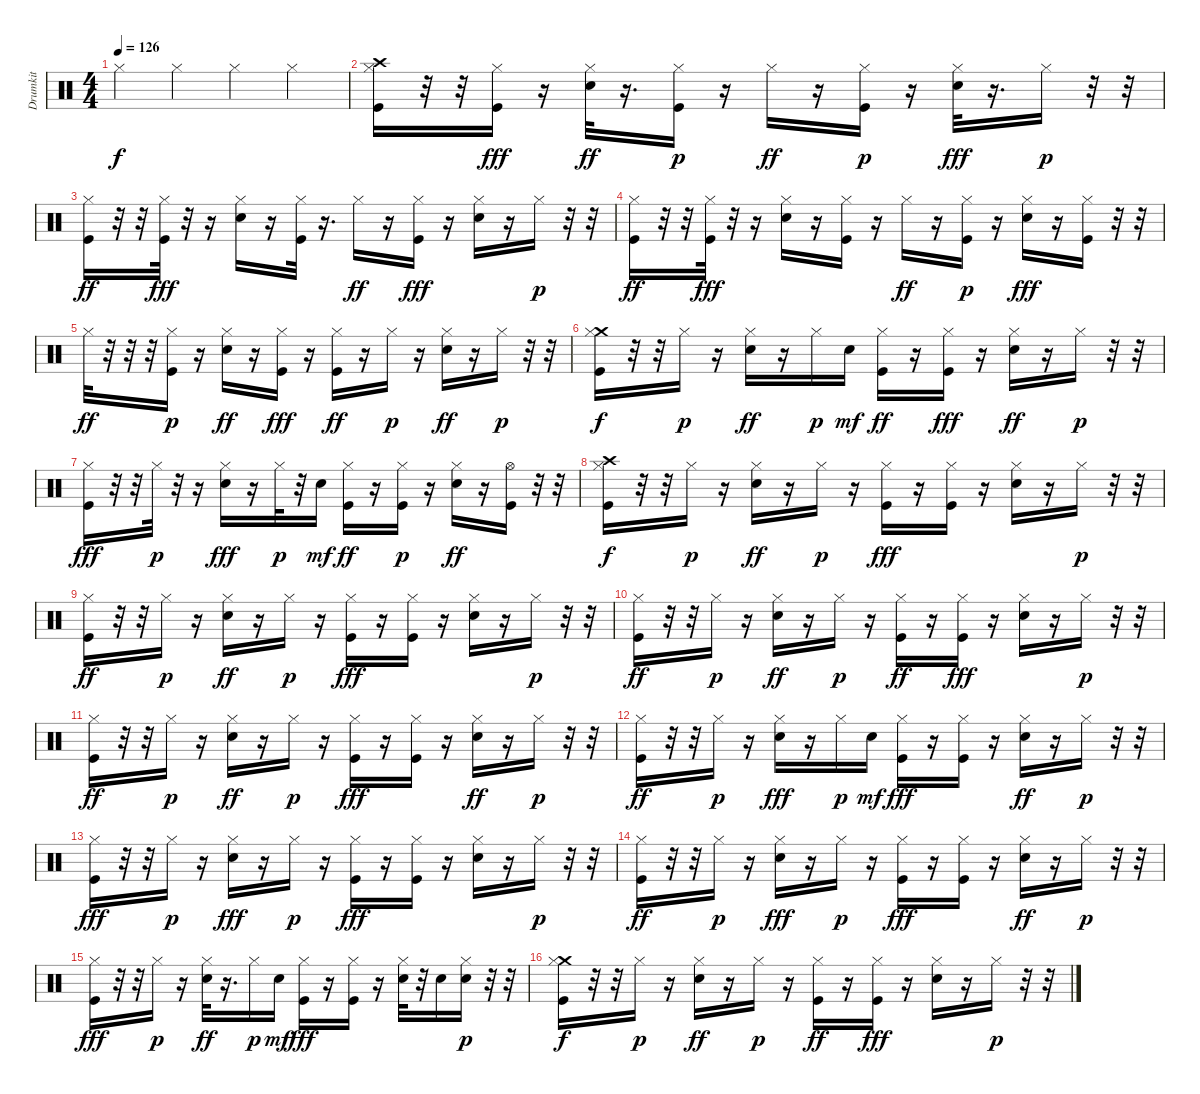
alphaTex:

\track ("Drumkit" "Drumkit") {instrument percussion}
\staff {score}
\articulation defaults
\ts (4 4)
\tempo 126
\clef neutral
\ks c "Hi-Hat (closed)".4{dy f} "Hi-Hat (closed)".4 "Hi-Hat (closed)".4 "Hi-Hat (closed)".4
|
("Crash high (hit)" "Hi-Hat (closed)" "Kick (hit)").16 r.32 r.32 ("Kick (hit)" "Hi-Hat (closed)").16{dy fff} r.16 ("Hi-Hat (closed)" "Snare (hit) 2").32{dy ff} r.16{d} ("Hi-Hat (closed)" "Kick (hit)").16{dy p} r.16 "Hi-Hat (closed)".16{dy ff} r.16 ("Hi-Hat (closed)" "Kick (hit)").16{dy p} r.16 ("Snare (hit) 2" "Hi-Hat (closed)").32{dy fff} r.16{d} "Hi-Hat (closed)".16{dy p} r.32 r.32 |
("Hi-Hat (closed)" "Kick (hit)").16{dy ff} r.32 r.32 ("Kick (hit)" "Hi-Hat (closed)").32{dy fff} r.32 r.16 ("Snare (hit) 2" "Hi-Hat (closed)").16 r.16 ("Kick (hit)" "Hi-Hat (closed)").32 r.16{d} "Hi-Hat (closed)".16{dy ff} r.16 ("Kick (hit)" "Hi-Hat (closed)").16{dy fff} r.16 ("Snare (hit) 2" "Hi-Hat (closed)").16 r.16 "Hi-Hat (closed)".16{dy p} r.32 r.32 |
("Hi-Hat (closed)" "Kick (hit)").16{dy ff} r.32 r.32 ("Kick (hit)" "Hi-Hat (closed)").32{dy fff} r.32 r.16 ("Snare (hit) 2" "Hi-Hat (closed)").16 r.16 ("Kick (hit)" "Hi-Hat (closed)").16 r.16 "Hi-Hat (closed)".16{dy ff} r.16 ("Hi-Hat (closed)" "Kick (hit)").16{dy p} r.16 ("Snare (hit) 2" "Hi-Hat (closed)").16{dy fff} r.16 ("Kick (hit)" "Hi-Hat (closed)").16 r.32 r.32 |
"Hi-Hat (closed)".32{dy ff} r.32 r.32 r.32 ("Hi-Hat (closed)" "Kick (hit)").16{dy p} r.16 ("Hi-Hat (closed)" "Snare (hit) 2").16{dy ff} r.16 ("Kick (hit)" "Hi-Hat (closed)").16{dy fff} r.16 ("Hi-Hat (closed)" "Kick (hit)").16{dy ff} r.16 "Hi-Hat (closed)".16{dy p} r.16 ("Hi-Hat (closed)" "Snare (hit) 2").16{dy ff} r.16 "Hi-Hat (closed)".16{dy p} r.32 r.32 |
("Crash medium (hit)" "Kick (hit)" "Hi-Hat (closed)").16{dy f} r.32 r.32 "Hi-Hat (closed)".16{dy p} r.16 ("Hi-Hat (closed)" "Snare (hit) 2").16{dy ff} r.16 "Hi-Hat (closed)".16{dy p} "Snare (hit) 2".16{dy mf} ("Hi-Hat (closed)" "Kick (hit)").16{dy ff} r.16 ("Kick (hit)" "Hi-Hat (closed)").16{dy fff} r.16 ("Hi-Hat (closed)" "Snare (hit) 2").16{dy ff} r.16 "Hi-Hat (closed)".16{dy p} r.32 r.32 |
("Kick (hit)" "Hi-Hat (closed)").16{dy fff} r.32 r.32 "Hi-Hat (closed)".32{dy p} r.32 r.16 ("Snare (hit) 2" "Hi-Hat (closed)").16{dy fff} r.16 "Hi-Hat (closed)".32{dy p} r.32 "Snare (hit) 2".16{dy mf} ("Hi-Hat (closed)" "Kick (hit)").16{dy ff} r.16 ("Hi-Hat (closed)" "Kick (hit)").16{dy p} r.16 ("Hi-Hat (closed)" "Snare (hit) 2").16{dy ff} r.16 ("Hi-Hat (open)" "Kick (hit)").16 r.32 r.32 |
("Crash high (hit)" "Kick (hit)" "Hi-Hat (closed)").16{dy f} r.32 r.32 "Hi-Hat (closed)".16{dy p} r.16 ("Hi-Hat (closed)" "Snare (hit) 2").16{dy ff} r.16 "Hi-Hat (closed)".16{dy p} r.16 ("Kick (hit)" "Hi-Hat (closed)").16{dy fff} r.16 ("Kick (hit)" "Hi-Hat (closed)").16 r.16 ("Snare (hit) 2" "Hi-Hat (closed)").16 r.16 "Hi-Hat (closed)".16{dy p} r.32 r.32 |
("Hi-Hat (closed)" "Kick (hit)").16{dy ff} r.32 r.32 "Hi-Hat (closed)".16{dy p} r.16 ("Hi-Hat (closed)" "Snare (hit) 2").16{dy ff} r.16 "Hi-Hat (closed)".16{dy p} r.16 ("Kick (hit)" "Hi-Hat (closed)").16{dy fff} r.16 ("Kick (hit)" "Hi-Hat (closed)").16 r.16 ("Snare (hit) 2" "Hi-Hat (closed)").16 r.16 "Hi-Hat (closed)".16{dy p} r.32 r.32 |
("Hi-Hat (closed)" "Kick (hit)").16{dy ff} r.32 r.32 "Hi-Hat (closed)".16{dy p} r.16 ("Hi-Hat (closed)" "Snare (hit) 2").16{dy ff} r.16 "Hi-Hat (closed)".16{dy p} r.16 ("Hi-Hat (closed)" "Kick (hit)").16{dy ff} r.16 ("Kick (hit)" "Hi-Hat (closed)").16{dy fff} r.16 ("Snare (hit) 2" "Hi-Hat (closed)").16 r.16 "Hi-Hat (closed)".16{dy p} r.32 r.32 |
("Hi-Hat (closed)" "Kick (hit)").16{dy ff} r.32 r.32 "Hi-Hat (closed)".16{dy p} r.16 ("Hi-Hat (closed)" "Snare (hit) 2").16{dy ff} r.16 "Hi-Hat (closed)".16{dy p} r.16 ("Kick (hit)" "Hi-Hat (closed)").16{dy fff} r.16 ("Kick (hit)" "Hi-Hat (closed)").16 r.16 ("Hi-Hat (closed)" "Snare (hit) 2").16{dy ff} r.16 "Hi-Hat (closed)".16{dy p} r.32 r.32 |
("Hi-Hat (closed)" "Kick (hit)").16{dy ff} r.32 r.32 "Hi-Hat (closed)".16{dy p} r.16 ("Snare (hit) 2" "Hi-Hat (closed)").16{dy fff} r.16 "Hi-Hat (closed)".16{dy p} "Snare (hit) 2".16{dy mf} ("Kick (hit)" "Hi-Hat (closed)").16{dy fff} r.16 ("Kick (hit)" "Hi-Hat (closed)").16 r.16 ("Hi-Hat (closed)" "Snare (hit) 2").16{dy ff} r.16 "Hi-Hat (closed)".16{dy p} r.32 r.32 |
("Kick (hit)" "Hi-Hat (closed)").16{dy fff} r.32 r.32 "Hi-Hat (closed)".16{dy p} r.16 ("Snare (hit) 2" "Hi-Hat (closed)").16{dy fff} r.16 "Hi-Hat (closed)".16{dy p} r.16 ("Kick (hit)" "Hi-Hat (closed)").16{dy fff} r.16 ("Kick (hit)" "Hi-Hat (closed)").16 r.16 ("Snare (hit) 2" "Hi-Hat (closed)").16 r.16 "Hi-Hat (closed)".16{dy p} r.32 r.32 |
("Hi-Hat (closed)" "Kick (hit)").16{dy ff} r.32 r.32 "Hi-Hat (closed)".16{dy p} r.16 ("Snare (hit) 2" "Hi-Hat (closed)").16{dy fff} r.16 "Hi-Hat (closed)".16{dy p} r.16 ("Kick (hit)" "Hi-Hat (closed)").16{dy fff} r.16 ("Kick (hit)" "Hi-Hat (closed)").16 r.16 ("Hi-Hat (closed)" "Snare (hit) 2").16{dy ff} r.16 "Hi-Hat (closed)".16{dy p} r.32 r.32 |
("Kick (hit)" "Hi-Hat (closed)").16{dy fff} r.32 r.32 "Hi-Hat (closed)".16{dy p} r.16 ("Hi-Hat (closed)" "Snare (hit) 2").32{dy ff} r.16{d} "Hi-Hat (closed)".16{dy p} "Snare (hit) 2".16{dy mf} ("Kick (hit)" "Hi-Hat (closed)").16{dy fff} r.16 ("Kick (hit)" "Hi-Hat (closed)").16 r.16 ("Snare (hit) 2" "Hi-Hat (closed)").32 r.32 "Snare (hit) 2".16 ("Hi-Hat (closed)" "Snare (hit) 2").16{dy p} r.32 r.32 |
("Crash medium (hit)" "Kick (hit)" "Hi-Hat (closed)").16{dy f} r.32 r.32 "Hi-Hat (closed)".16{dy p} r.16 ("Hi-Hat (closed)" "Snare (hit) 2").16{dy ff} r.16 "Hi-Hat (closed)".16{dy p} r.16 ("Hi-Hat (closed)" "Kick (hit)").16{dy ff} r.16 ("Kick (hit)" "Hi-Hat (closed)").16{dy fff} r.16 ("Snare (hit) 2" "Hi-Hat (closed)").16 r.16 "Hi-Hat (closed)".16{dy p} r.32 r.32
